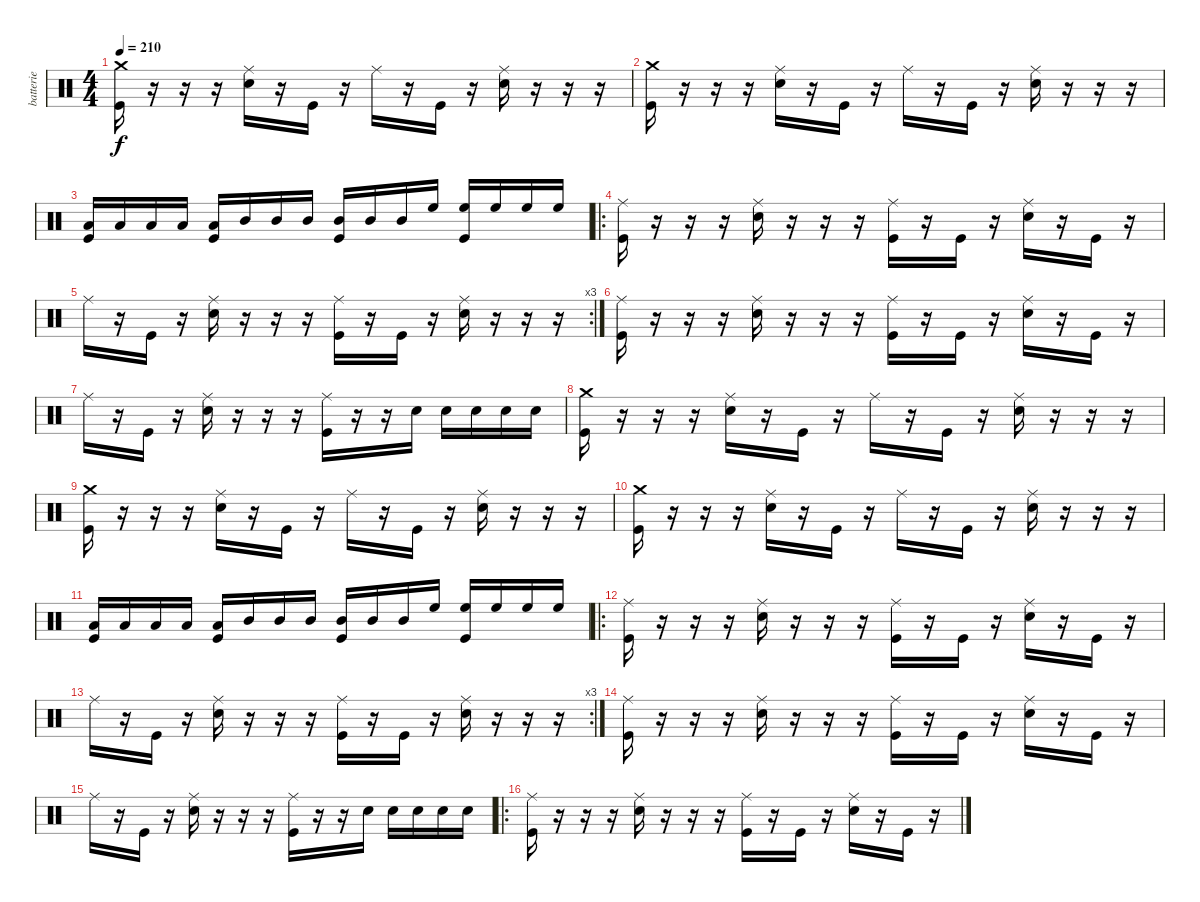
\track ("batterie " "batterie ") {instrument percussion}
\staff {score}
\articulation defaults
\ts (4 4)
\tempo 210
\clef neutral
\ks c
("Crash medium (hit)" "Kick (hit)").16{dy f} r.16 r.16 r.16 ("Ride (middle)" "Snare (hit) 2").16 r.16 "Kick (hit)".16 r.16 "Ride (middle)".16 r.16 "Kick (hit)".16 r.16 ("Ride (middle)" "Snare (hit) 2").16 r.16 r.16 r.16 |
("Crash medium (hit)" "Kick (hit)").16 r.16 r.16 r.16 ("Ride (middle)" "Snare (hit) 2").16 r.16 "Kick (hit)".16 r.16 "Ride (middle)".16 r.16 "Kick (hit)".16 r.16 ("Ride (middle)" "Snare (hit) 2").16 r.16 r.16 r.16 |
("Low Tom (hit)" "Kick (hit)").16 "Low Tom (hit)".16 "Low Tom (hit)".16 "Low Tom (hit)".16 ("Low Tom (hit)" "Kick (hit)").16 "Mid Tom (hit)".16 "Mid Tom (hit)".16 "Mid Tom (hit)".16 ("Mid Tom (hit)" "Kick (hit)").16 "Mid Tom (hit)".16 "Mid Tom (hit)".16 "High Floor Tom (hit)".16 ("High Floor Tom (hit)" "Kick (hit)").16 "High Floor Tom (hit)".16 "High Floor Tom (hit)".16 "High Floor Tom (hit)".16 |
\ro
("Ride (middle)" "Kick (hit)").16 r.16 r.16 r.16 ("Ride (middle)" "Snare (hit) 2").16 r.16 r.16 r.16 ("Ride (middle)" "Kick (hit)").16 r.16 "Kick (hit)".16 r.16 ("Ride (middle)" "Snare (hit) 2").16 r.16 "Kick (hit)".16 r.16 |
\rc 3 "Ride (middle)".16
r.16 "Kick (hit)".16 r.16 ("Ride (middle)" "Snare (hit) 2").16 r.16 r.16 r.16 ("Ride (middle)" "Kick (hit)").16 r.16 "Kick (hit)".16 r.16 ("Ride (middle)" "Snare (hit) 2").16 r.16 r.16 r.16 |
("Ride (middle)" "Kick (hit)").16 r.16 r.16 r.16 ("Ride (middle)" "Snare (hit) 2").16 r.16 r.16 r.16 ("Ride (middle)" "Kick (hit)").16 r.16 "Kick (hit)".16 r.16 ("Ride (middle)" "Snare (hit) 2").16 r.16 "Kick (hit)".16 r.16 |
"Ride (middle)".16 r.16 "Kick (hit)".16 r.16 ("Ride (middle)" "Snare (hit) 2").16 r.16 r.16 r.16 ("Ride (middle)" "Kick (hit)").16 r.16 r.16 "Snare (hit) 2".16 "Snare (hit) 2".16 "Snare (hit) 2".16 "Snare (hit) 2".16 "Snare (hit) 2".16 |
("Crash medium (hit)" "Kick (hit)").16 r.16 r.16 r.16 ("Ride (middle)" "Snare (hit) 2").16 r.16 "Kick (hit)".16 r.16 "Ride (middle)".16 r.16 "Kick (hit)".16 r.16 ("Ride (middle)" "Snare (hit) 2").16 r.16 r.16 r.16 |
("Crash medium (hit)" "Kick (hit)").16 r.16 r.16 r.16 ("Ride (middle)" "Snare (hit) 2").16 r.16 "Kick (hit)".16 r.16 "Ride (middle)".16 r.16 "Kick (hit)".16 r.16 ("Ride (middle)" "Snare (hit) 2").16 r.16 r.16 r.16 |
("Crash medium (hit)" "Kick (hit)").16 r.16 r.16 r.16 ("Ride (middle)" "Snare (hit) 2").16 r.16 "Kick (hit)".16 r.16 "Ride (middle)".16 r.16 "Kick (hit)".16 r.16 ("Ride (middle)" "Snare (hit) 2").16 r.16 r.16 r.16 |
("Low Tom (hit)" "Kick (hit)").16 "Low Tom (hit)".16 "Low Tom (hit)".16 "Low Tom (hit)".16 ("Low Tom (hit)" "Kick (hit)").16 "Mid Tom (hit)".16 "Mid Tom (hit)".16 "Mid Tom (hit)".16 ("Mid Tom (hit)" "Kick (hit)").16 "Mid Tom (hit)".16 "Mid Tom (hit)".16 "High Floor Tom (hit)".16 ("High Floor Tom (hit)" "Kick (hit)").16 "High Floor Tom (hit)".16 "High Floor Tom (hit)".16 "High Floor Tom (hit)".16 |
\ro
("Ride (middle)" "Kick (hit)").16 r.16 r.16 r.16 ("Ride (middle)" "Snare (hit) 2").16 r.16 r.16 r.16 ("Ride (middle)" "Kick (hit)").16 r.16 "Kick (hit)".16 r.16 ("Ride (middle)" "Snare (hit) 2").16 r.16 "Kick (hit)".16 r.16 |
\rc 3 "Ride (middle)".16
r.16 "Kick (hit)".16 r.16 ("Ride (middle)" "Snare (hit) 2").16 r.16 r.16 r.16 ("Ride (middle)" "Kick (hit)").16 r.16 "Kick (hit)".16 r.16 ("Ride (middle)" "Snare (hit) 2").16 r.16 r.16 r.16 |
("Ride (middle)" "Kick (hit)").16 r.16 r.16 r.16 ("Ride (middle)" "Snare (hit) 2").16 r.16 r.16 r.16 ("Ride (middle)" "Kick (hit)").16 r.16 "Kick (hit)".16 r.16 ("Ride (middle)" "Snare (hit) 2").16 r.16 "Kick (hit)".16 r.16 |
"Ride (middle)".16 r.16 "Kick (hit)".16 r.16 ("Ride (middle)" "Snare (hit) 2").16 r.16 r.16 r.16 ("Ride (middle)" "Kick (hit)").16 r.16 r.16 "Snare (hit) 2".16 "Snare (hit) 2".16 "Snare (hit) 2".16 "Snare (hit) 2".16 "Snare (hit) 2".16 |
\ro
("Ride (middle)" "Kick (hit)").16 r.16 r.16 r.16 ("Ride (middle)" "Snare (hit) 2").16 r.16 r.16 r.16 ("Ride (middle)" "Kick (hit)").16 r.16 "Kick (hit)".16 r.16 ("Ride (middle)" "Snare (hit) 2").16 r.16 "Kick (hit)".16 r.16
